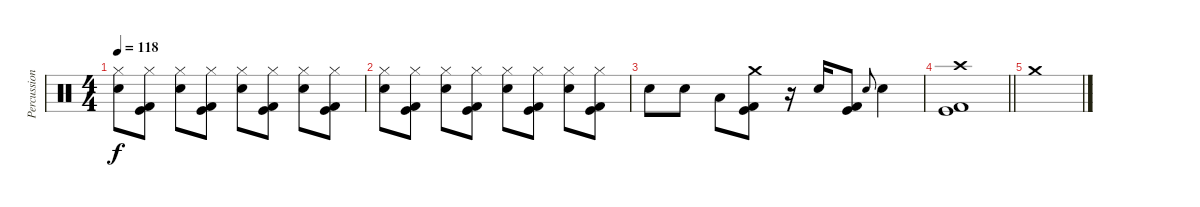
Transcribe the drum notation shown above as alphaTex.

\track ("Percussion" "Percussion") {instrument percussion}
\staff {score}
\articulation defaults
\ts (4 4)
\tempo 118
\clef neutral
\ks c
("Hi-Hat (closed)" "Electric Snare (hit)").8{dy f} ("Hi-Hat (closed)" "Kick (hit)" "Kick (hit) 2").8 ("Hi-Hat (closed)" "Electric Snare (hit)").8 ("Hi-Hat (closed)" "Kick (hit)" "Kick (hit) 2").8 ("Hi-Hat (closed)" "Electric Snare (hit)").8 ("Hi-Hat (closed)" "Kick (hit)" "Kick (hit) 2").8 ("Hi-Hat (closed)" "Electric Snare (hit)").8 ("Hi-Hat (closed)" "Kick (hit)" "Kick (hit) 2").8 |
("Hi-Hat (closed)" "Electric Snare (hit)").8 ("Hi-Hat (closed)" "Kick (hit)" "Kick (hit) 2").8 ("Hi-Hat (closed)" "Electric Snare (hit)").8 ("Hi-Hat (closed)" "Kick (hit)" "Kick (hit) 2").8 ("Hi-Hat (closed)" "Electric Snare (hit)").8 ("Hi-Hat (closed)" "Kick (hit)" "Kick (hit) 2").8 ("Hi-Hat (closed)" "Electric Snare (hit)").8 ("Hi-Hat (closed)" "Kick (hit)" "Kick (hit) 2").8 |
"Electric Snare (hit)".8 "Electric Snare (hit)".8 "Low Tom (hit)".8 ("Crash medium (hit)" "Kick (hit)" "Kick (hit) 2").8 r.16 "Electric Snare (hit)".16 ("Kick (hit)" "Kick (hit) 2").8 "Electric Snare (hit)".8{gr onbeat} "Electric Snare (hit)".4 |
\barLineRight lightlight
("Crash high (hit)" "Kick (hit)" "Kick (hit) 2").1 |
\section ("" "")
"Crash medium (hit)".1
